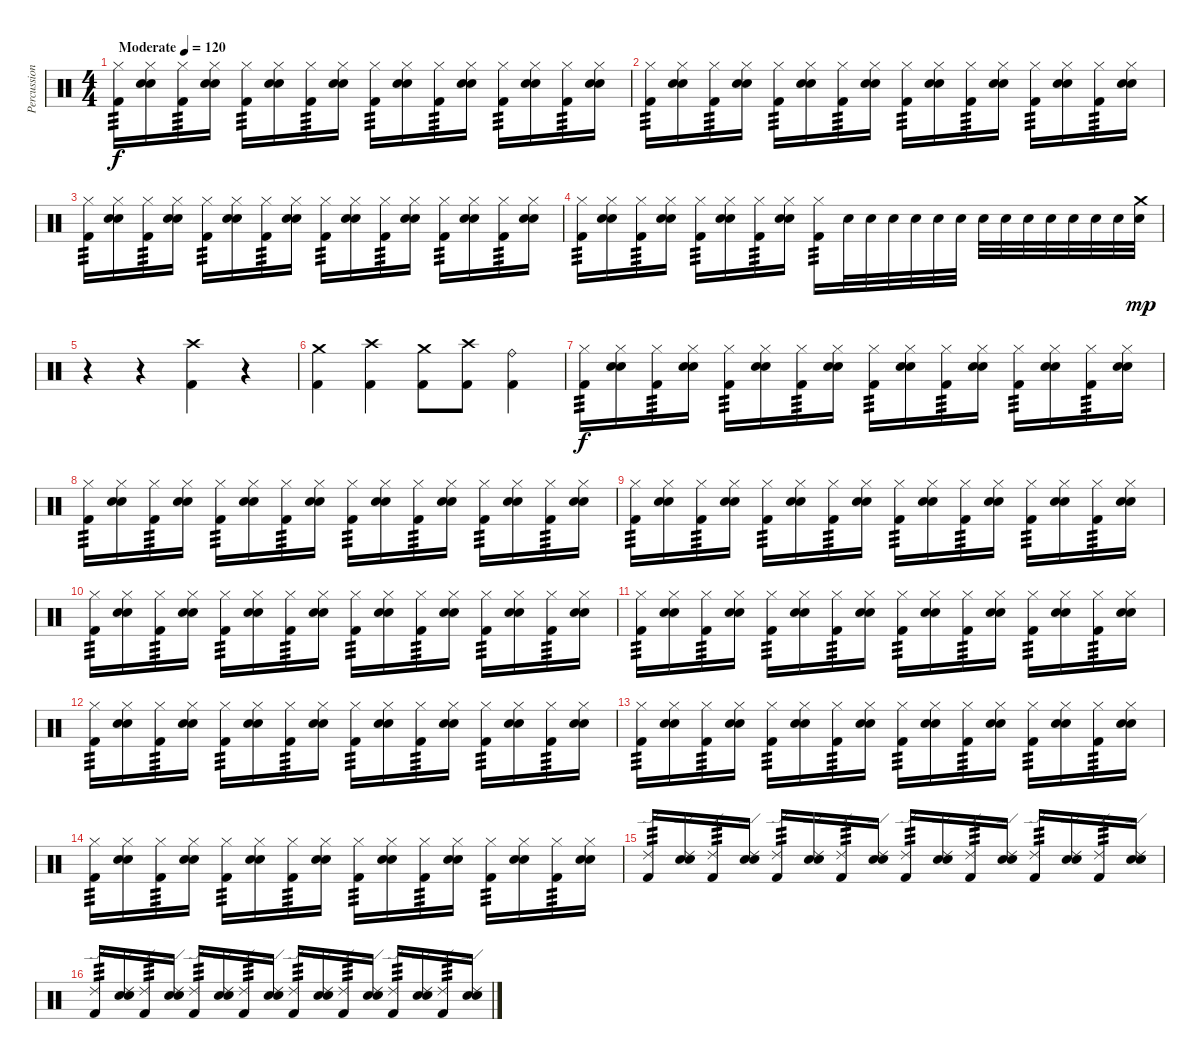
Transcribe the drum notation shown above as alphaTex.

\track ("Percussion" "Percussion") {instrument percussion}
\staff {score}
\articulation defaults
\ts (4 4)
\tempo (120 "Moderate")
\clef neutral
\ks c
("Hi-Hat (closed)" "Kick (hit) 2").16{tp 3 dy f} ("Hi-Hat (closed)" "Snare (hit) 2" "Electric Snare (hit)").16 ("Hi-Hat (closed)" "Kick (hit) 2").16{tp 3} ("Hi-Hat (closed)" "Snare (hit) 2" "Electric Snare (hit)").16 ("Hi-Hat (closed)" "Kick (hit) 2").16{tp 3} ("Hi-Hat (closed)" "Snare (hit) 2" "Electric Snare (hit)").16 ("Hi-Hat (closed)" "Kick (hit) 2").16{tp 3} ("Hi-Hat (closed)" "Snare (hit) 2" "Electric Snare (hit)").16 ("Hi-Hat (closed)" "Kick (hit) 2").16{tp 3} ("Hi-Hat (closed)" "Snare (hit) 2" "Electric Snare (hit)").16 ("Hi-Hat (closed)" "Kick (hit) 2").16{tp 3} ("Hi-Hat (closed)" "Snare (hit) 2" "Electric Snare (hit)").16 ("Hi-Hat (closed)" "Kick (hit) 2").16{tp 3} ("Hi-Hat (closed)" "Snare (hit) 2" "Electric Snare (hit)").16 ("Hi-Hat (closed)" "Kick (hit) 2").16{tp 3} ("Hi-Hat (closed)" "Snare (hit) 2" "Electric Snare (hit)").16 |
("Hi-Hat (closed)" "Kick (hit) 2").16{tp 3} ("Hi-Hat (closed)" "Snare (hit) 2" "Electric Snare (hit)").16 ("Hi-Hat (closed)" "Kick (hit) 2").16{tp 3} ("Hi-Hat (closed)" "Snare (hit) 2" "Electric Snare (hit)").16 ("Hi-Hat (closed)" "Kick (hit) 2").16{tp 3} ("Hi-Hat (closed)" "Snare (hit) 2" "Electric Snare (hit)").16 ("Hi-Hat (closed)" "Kick (hit) 2").16{tp 3} ("Hi-Hat (closed)" "Snare (hit) 2" "Electric Snare (hit)").16 ("Hi-Hat (closed)" "Kick (hit) 2").16{tp 3} ("Hi-Hat (closed)" "Snare (hit) 2" "Electric Snare (hit)").16 ("Hi-Hat (closed)" "Kick (hit) 2").16{tp 3} ("Hi-Hat (closed)" "Snare (hit) 2" "Electric Snare (hit)").16 ("Hi-Hat (closed)" "Kick (hit) 2").16{tp 3} ("Hi-Hat (closed)" "Snare (hit) 2" "Electric Snare (hit)").16 ("Hi-Hat (closed)" "Kick (hit) 2").16{tp 3} ("Hi-Hat (closed)" "Snare (hit) 2" "Electric Snare (hit)").16 |
("Hi-Hat (closed)" "Kick (hit) 2").16{tp 3} ("Hi-Hat (closed)" "Snare (hit) 2" "Electric Snare (hit)").16 ("Hi-Hat (closed)" "Kick (hit) 2").16{tp 3} ("Hi-Hat (closed)" "Snare (hit) 2" "Electric Snare (hit)").16 ("Hi-Hat (closed)" "Kick (hit) 2").16{tp 3} ("Hi-Hat (closed)" "Snare (hit) 2" "Electric Snare (hit)").16 ("Hi-Hat (closed)" "Kick (hit) 2").16{tp 3} ("Hi-Hat (closed)" "Snare (hit) 2" "Electric Snare (hit)").16 ("Hi-Hat (closed)" "Kick (hit) 2").16{tp 3} ("Hi-Hat (closed)" "Snare (hit) 2" "Electric Snare (hit)").16 ("Hi-Hat (closed)" "Kick (hit) 2").16{tp 3} ("Hi-Hat (closed)" "Snare (hit) 2" "Electric Snare (hit)").16 ("Hi-Hat (closed)" "Kick (hit) 2").16{tp 3} ("Hi-Hat (closed)" "Snare (hit) 2" "Electric Snare (hit)").16 ("Hi-Hat (closed)" "Kick (hit) 2").16{tp 3} ("Hi-Hat (closed)" "Snare (hit) 2" "Electric Snare (hit)").16 |
("Hi-Hat (closed)" "Kick (hit) 2").16{tp 3} ("Hi-Hat (closed)" "Snare (hit) 2" "Electric Snare (hit)").16 ("Hi-Hat (closed)" "Kick (hit) 2").16{tp 3} ("Hi-Hat (closed)" "Snare (hit) 2" "Electric Snare (hit)").16 ("Hi-Hat (closed)" "Kick (hit) 2").16{tp 3} ("Hi-Hat (closed)" "Snare (hit) 2" "Electric Snare (hit)").16 ("Hi-Hat (closed)" "Kick (hit) 2").16{tp 3} ("Hi-Hat (closed)" "Snare (hit) 2" "Electric Snare (hit)").16 ("Hi-Hat (closed)" "Kick (hit) 2").16{tp 3} "Electric Snare (hit)".32 "Electric Snare (hit)".32 "Electric Snare (hit)".32 "Electric Snare (hit)".32 "Electric Snare (hit)".32 "Electric Snare (hit)".32 "Electric Snare (hit)".32 "Electric Snare (hit)".32 "Electric Snare (hit)".32 "Electric Snare (hit)".32 "Electric Snare (hit)".32 "Electric Snare (hit)".32 "Electric Snare (hit)".32 ("Crash medium (hit)" "Electric Snare (hit)").32{dy mp} |
r.4 r.4 ("Crash high (hit)" "Kick (hit) 2").4 r.4 |
("Crash medium (hit)" "Kick (hit) 2").4 ("Crash high (hit)" "Kick (hit) 2").4 ("Crash medium (hit)" "Kick (hit) 2").8 ("Crash high (hit)" "Kick (hit) 2").8 ("Ride (bell)" "Kick (hit) 2").4 |
("Hi-Hat (closed)" "Kick (hit) 2").16{tp 3 dy f} ("Hi-Hat (closed)" "Snare (hit) 2" "Electric Snare (hit)").16 ("Hi-Hat (closed)" "Kick (hit) 2").16{tp 3} ("Hi-Hat (closed)" "Snare (hit) 2" "Electric Snare (hit)").16 ("Hi-Hat (closed)" "Kick (hit) 2").16{tp 3} ("Hi-Hat (closed)" "Snare (hit) 2" "Electric Snare (hit)").16 ("Hi-Hat (closed)" "Kick (hit) 2").16{tp 3} ("Hi-Hat (closed)" "Snare (hit) 2" "Electric Snare (hit)").16 ("Hi-Hat (closed)" "Kick (hit) 2").16{tp 3} ("Hi-Hat (closed)" "Snare (hit) 2" "Electric Snare (hit)").16 ("Hi-Hat (closed)" "Kick (hit) 2").16{tp 3} ("Hi-Hat (closed)" "Snare (hit) 2" "Electric Snare (hit)").16 ("Hi-Hat (closed)" "Kick (hit) 2").16{tp 3} ("Hi-Hat (closed)" "Snare (hit) 2" "Electric Snare (hit)").16 ("Hi-Hat (closed)" "Kick (hit) 2").16{tp 3} ("Hi-Hat (closed)" "Snare (hit) 2" "Electric Snare (hit)").16 |
("Hi-Hat (closed)" "Kick (hit) 2").16{tp 3} ("Hi-Hat (closed)" "Snare (hit) 2" "Electric Snare (hit)").16 ("Hi-Hat (closed)" "Kick (hit) 2").16{tp 3} ("Hi-Hat (closed)" "Snare (hit) 2" "Electric Snare (hit)").16 ("Hi-Hat (closed)" "Kick (hit) 2").16{tp 3} ("Hi-Hat (closed)" "Snare (hit) 2" "Electric Snare (hit)").16 ("Hi-Hat (closed)" "Kick (hit) 2").16{tp 3} ("Hi-Hat (closed)" "Snare (hit) 2" "Electric Snare (hit)").16 ("Hi-Hat (closed)" "Kick (hit) 2").16{tp 3} ("Hi-Hat (closed)" "Snare (hit) 2" "Electric Snare (hit)").16 ("Hi-Hat (closed)" "Kick (hit) 2").16{tp 3} ("Hi-Hat (closed)" "Snare (hit) 2" "Electric Snare (hit)").16 ("Hi-Hat (closed)" "Kick (hit) 2").16{tp 3} ("Hi-Hat (closed)" "Snare (hit) 2" "Electric Snare (hit)").16 ("Hi-Hat (closed)" "Kick (hit) 2").16{tp 3} ("Hi-Hat (closed)" "Snare (hit) 2" "Electric Snare (hit)").16 |
("Hi-Hat (closed)" "Kick (hit) 2").16{tp 3} ("Hi-Hat (closed)" "Snare (hit) 2" "Electric Snare (hit)").16 ("Hi-Hat (closed)" "Kick (hit) 2").16{tp 3} ("Hi-Hat (closed)" "Snare (hit) 2" "Electric Snare (hit)").16 ("Hi-Hat (closed)" "Kick (hit) 2").16{tp 3} ("Hi-Hat (closed)" "Snare (hit) 2" "Electric Snare (hit)").16 ("Hi-Hat (closed)" "Kick (hit) 2").16{tp 3} ("Hi-Hat (closed)" "Snare (hit) 2" "Electric Snare (hit)").16 ("Hi-Hat (closed)" "Kick (hit) 2").16{tp 3} ("Hi-Hat (closed)" "Snare (hit) 2" "Electric Snare (hit)").16 ("Hi-Hat (closed)" "Kick (hit) 2").16{tp 3} ("Hi-Hat (closed)" "Snare (hit) 2" "Electric Snare (hit)").16 ("Hi-Hat (closed)" "Kick (hit) 2").16{tp 3} ("Hi-Hat (closed)" "Snare (hit) 2" "Electric Snare (hit)").16 ("Hi-Hat (closed)" "Kick (hit) 2").16{tp 3} ("Hi-Hat (closed)" "Snare (hit) 2" "Electric Snare (hit)").16 |
("Hi-Hat (closed)" "Kick (hit) 2").16{tp 3} ("Hi-Hat (closed)" "Snare (hit) 2" "Electric Snare (hit)").16 ("Hi-Hat (closed)" "Kick (hit) 2").16{tp 3} ("Hi-Hat (closed)" "Snare (hit) 2" "Electric Snare (hit)").16 ("Hi-Hat (closed)" "Kick (hit) 2").16{tp 3} ("Hi-Hat (closed)" "Snare (hit) 2" "Electric Snare (hit)").16 ("Hi-Hat (closed)" "Kick (hit) 2").16{tp 3} ("Hi-Hat (closed)" "Snare (hit) 2" "Electric Snare (hit)").16 ("Hi-Hat (closed)" "Kick (hit) 2").16{tp 3} ("Hi-Hat (closed)" "Snare (hit) 2" "Electric Snare (hit)").16 ("Hi-Hat (closed)" "Kick (hit) 2").16{tp 3} ("Hi-Hat (closed)" "Snare (hit) 2" "Electric Snare (hit)").16 ("Hi-Hat (closed)" "Kick (hit) 2").16{tp 3} ("Hi-Hat (closed)" "Snare (hit) 2" "Electric Snare (hit)").16 ("Hi-Hat (closed)" "Kick (hit) 2").16{tp 3} ("Hi-Hat (closed)" "Snare (hit) 2" "Electric Snare (hit)").16 |
("Hi-Hat (closed)" "Kick (hit) 2").16{tp 3} ("Hi-Hat (closed)" "Snare (hit) 2" "Electric Snare (hit)").16 ("Hi-Hat (closed)" "Kick (hit) 2").16{tp 3} ("Hi-Hat (closed)" "Snare (hit) 2" "Electric Snare (hit)").16 ("Hi-Hat (closed)" "Kick (hit) 2").16{tp 3} ("Hi-Hat (closed)" "Snare (hit) 2" "Electric Snare (hit)").16 ("Hi-Hat (closed)" "Kick (hit) 2").16{tp 3} ("Hi-Hat (closed)" "Snare (hit) 2" "Electric Snare (hit)").16 ("Hi-Hat (closed)" "Kick (hit) 2").16{tp 3} ("Hi-Hat (closed)" "Snare (hit) 2" "Electric Snare (hit)").16 ("Hi-Hat (closed)" "Kick (hit) 2").16{tp 3} ("Hi-Hat (closed)" "Snare (hit) 2" "Electric Snare (hit)").16 ("Hi-Hat (closed)" "Kick (hit) 2").16{tp 3} ("Hi-Hat (closed)" "Snare (hit) 2" "Electric Snare (hit)").16 ("Hi-Hat (closed)" "Kick (hit) 2").16{tp 3} ("Hi-Hat (closed)" "Snare (hit) 2" "Electric Snare (hit)").16 |
("Hi-Hat (closed)" "Kick (hit) 2").16{tp 3} ("Hi-Hat (closed)" "Snare (hit) 2" "Electric Snare (hit)").16 ("Hi-Hat (closed)" "Kick (hit) 2").16{tp 3} ("Hi-Hat (closed)" "Snare (hit) 2" "Electric Snare (hit)").16 ("Hi-Hat (closed)" "Kick (hit) 2").16{tp 3} ("Hi-Hat (closed)" "Snare (hit) 2" "Electric Snare (hit)").16 ("Hi-Hat (closed)" "Kick (hit) 2").16{tp 3} ("Hi-Hat (closed)" "Snare (hit) 2" "Electric Snare (hit)").16 ("Hi-Hat (closed)" "Kick (hit) 2").16{tp 3} ("Hi-Hat (closed)" "Snare (hit) 2" "Electric Snare (hit)").16 ("Hi-Hat (closed)" "Kick (hit) 2").16{tp 3} ("Hi-Hat (closed)" "Snare (hit) 2" "Electric Snare (hit)").16 ("Hi-Hat (closed)" "Kick (hit) 2").16{tp 3} ("Hi-Hat (closed)" "Snare (hit) 2" "Electric Snare (hit)").16 ("Hi-Hat (closed)" "Kick (hit) 2").16{tp 3} ("Hi-Hat (closed)" "Snare (hit) 2" "Electric Snare (hit)").16 |
("Hi-Hat (closed)" "Kick (hit) 2").16{tp 3} ("Hi-Hat (closed)" "Snare (hit) 2" "Electric Snare (hit)").16 ("Hi-Hat (closed)" "Kick (hit) 2").16{tp 3} ("Hi-Hat (closed)" "Snare (hit) 2" "Electric Snare (hit)").16 ("Hi-Hat (closed)" "Kick (hit) 2").16{tp 3} ("Hi-Hat (closed)" "Snare (hit) 2" "Electric Snare (hit)").16 ("Hi-Hat (closed)" "Kick (hit) 2").16{tp 3} ("Hi-Hat (closed)" "Snare (hit) 2" "Electric Snare (hit)").16 ("Hi-Hat (closed)" "Kick (hit) 2").16{tp 3} ("Hi-Hat (closed)" "Snare (hit) 2" "Electric Snare (hit)").16 ("Hi-Hat (closed)" "Kick (hit) 2").16{tp 3} ("Hi-Hat (closed)" "Snare (hit) 2" "Electric Snare (hit)").16 ("Hi-Hat (closed)" "Kick (hit) 2").16{tp 3} ("Hi-Hat (closed)" "Snare (hit) 2" "Electric Snare (hit)").16 ("Hi-Hat (closed)" "Kick (hit) 2").16{tp 3} ("Hi-Hat (closed)" "Snare (hit) 2" "Electric Snare (hit)").16 |
("Hi-Hat (closed)" "Kick (hit) 2").16{tp 3} ("Hi-Hat (closed)" "Snare (hit) 2" "Electric Snare (hit)").16 ("Hi-Hat (closed)" "Kick (hit) 2").16{tp 3} ("Hi-Hat (closed)" "Snare (hit) 2" "Electric Snare (hit)").16 ("Hi-Hat (closed)" "Kick (hit) 2").16{tp 3} ("Hi-Hat (closed)" "Snare (hit) 2" "Electric Snare (hit)").16 ("Hi-Hat (closed)" "Kick (hit) 2").16{tp 3} ("Hi-Hat (closed)" "Snare (hit) 2" "Electric Snare (hit)").16 ("Hi-Hat (closed)" "Kick (hit) 2").16{tp 3} ("Hi-Hat (closed)" "Snare (hit) 2" "Electric Snare (hit)").16 ("Hi-Hat (closed)" "Kick (hit) 2").16{tp 3} ("Hi-Hat (closed)" "Snare (hit) 2" "Electric Snare (hit)").16 ("Hi-Hat (closed)" "Kick (hit) 2").16{tp 3} ("Hi-Hat (closed)" "Snare (hit) 2" "Electric Snare (hit)").16 ("Hi-Hat (closed)" "Kick (hit) 2").16{tp 3} ("Hi-Hat (closed)" "Snare (hit) 2" "Electric Snare (hit)").16 |
("Ride (edge) 2" "Kick (hit) 2").16{tp 3} ("Ride (edge) 2" "Snare (hit) 2" "Electric Snare (hit)").16 ("Ride (edge) 2" "Kick (hit) 2").16{tp 3} ("Ride (edge) 2" "Snare (hit) 2" "Electric Snare (hit)").16 ("Ride (edge) 2" "Kick (hit) 2").16{tp 3} ("Ride (edge) 2" "Snare (hit) 2" "Electric Snare (hit)").16 ("Ride (edge) 2" "Kick (hit) 2").16{tp 3} ("Ride (edge) 2" "Snare (hit) 2" "Electric Snare (hit)").16 ("Ride (edge) 2" "Kick (hit) 2").16{tp 3} ("Ride (edge) 2" "Snare (hit) 2" "Electric Snare (hit)").16 ("Ride (edge) 2" "Kick (hit) 2").16{tp 3} ("Ride (edge) 2" "Snare (hit) 2" "Electric Snare (hit)").16 ("Ride (edge) 2" "Kick (hit) 2").16{tp 3} ("Ride (edge) 2" "Snare (hit) 2" "Electric Snare (hit)").16 ("Ride (edge) 2" "Kick (hit) 2").16{tp 3} ("Ride (edge) 2" "Snare (hit) 2" "Electric Snare (hit)").16 |
("Ride (edge) 2" "Kick (hit) 2").16{tp 3} ("Ride (edge) 2" "Snare (hit) 2" "Electric Snare (hit)").16 ("Ride (edge) 2" "Kick (hit) 2").16{tp 3} ("Ride (edge) 2" "Snare (hit) 2" "Electric Snare (hit)").16 ("Ride (edge) 2" "Kick (hit) 2").16{tp 3} ("Ride (edge) 2" "Snare (hit) 2" "Electric Snare (hit)").16 ("Ride (edge) 2" "Kick (hit) 2").16{tp 3} ("Ride (edge) 2" "Snare (hit) 2" "Electric Snare (hit)").16 ("Ride (edge) 2" "Kick (hit) 2").16{tp 3} ("Ride (edge) 2" "Snare (hit) 2" "Electric Snare (hit)").16 ("Ride (edge) 2" "Kick (hit) 2").16{tp 3} ("Ride (edge) 2" "Snare (hit) 2" "Electric Snare (hit)").16 ("Ride (edge) 2" "Kick (hit) 2").16{tp 3} ("Ride (edge) 2" "Snare (hit) 2" "Electric Snare (hit)").16 ("Ride (edge) 2" "Kick (hit) 2").16{tp 3} ("Ride (edge) 2" "Snare (hit) 2" "Electric Snare (hit)").16
